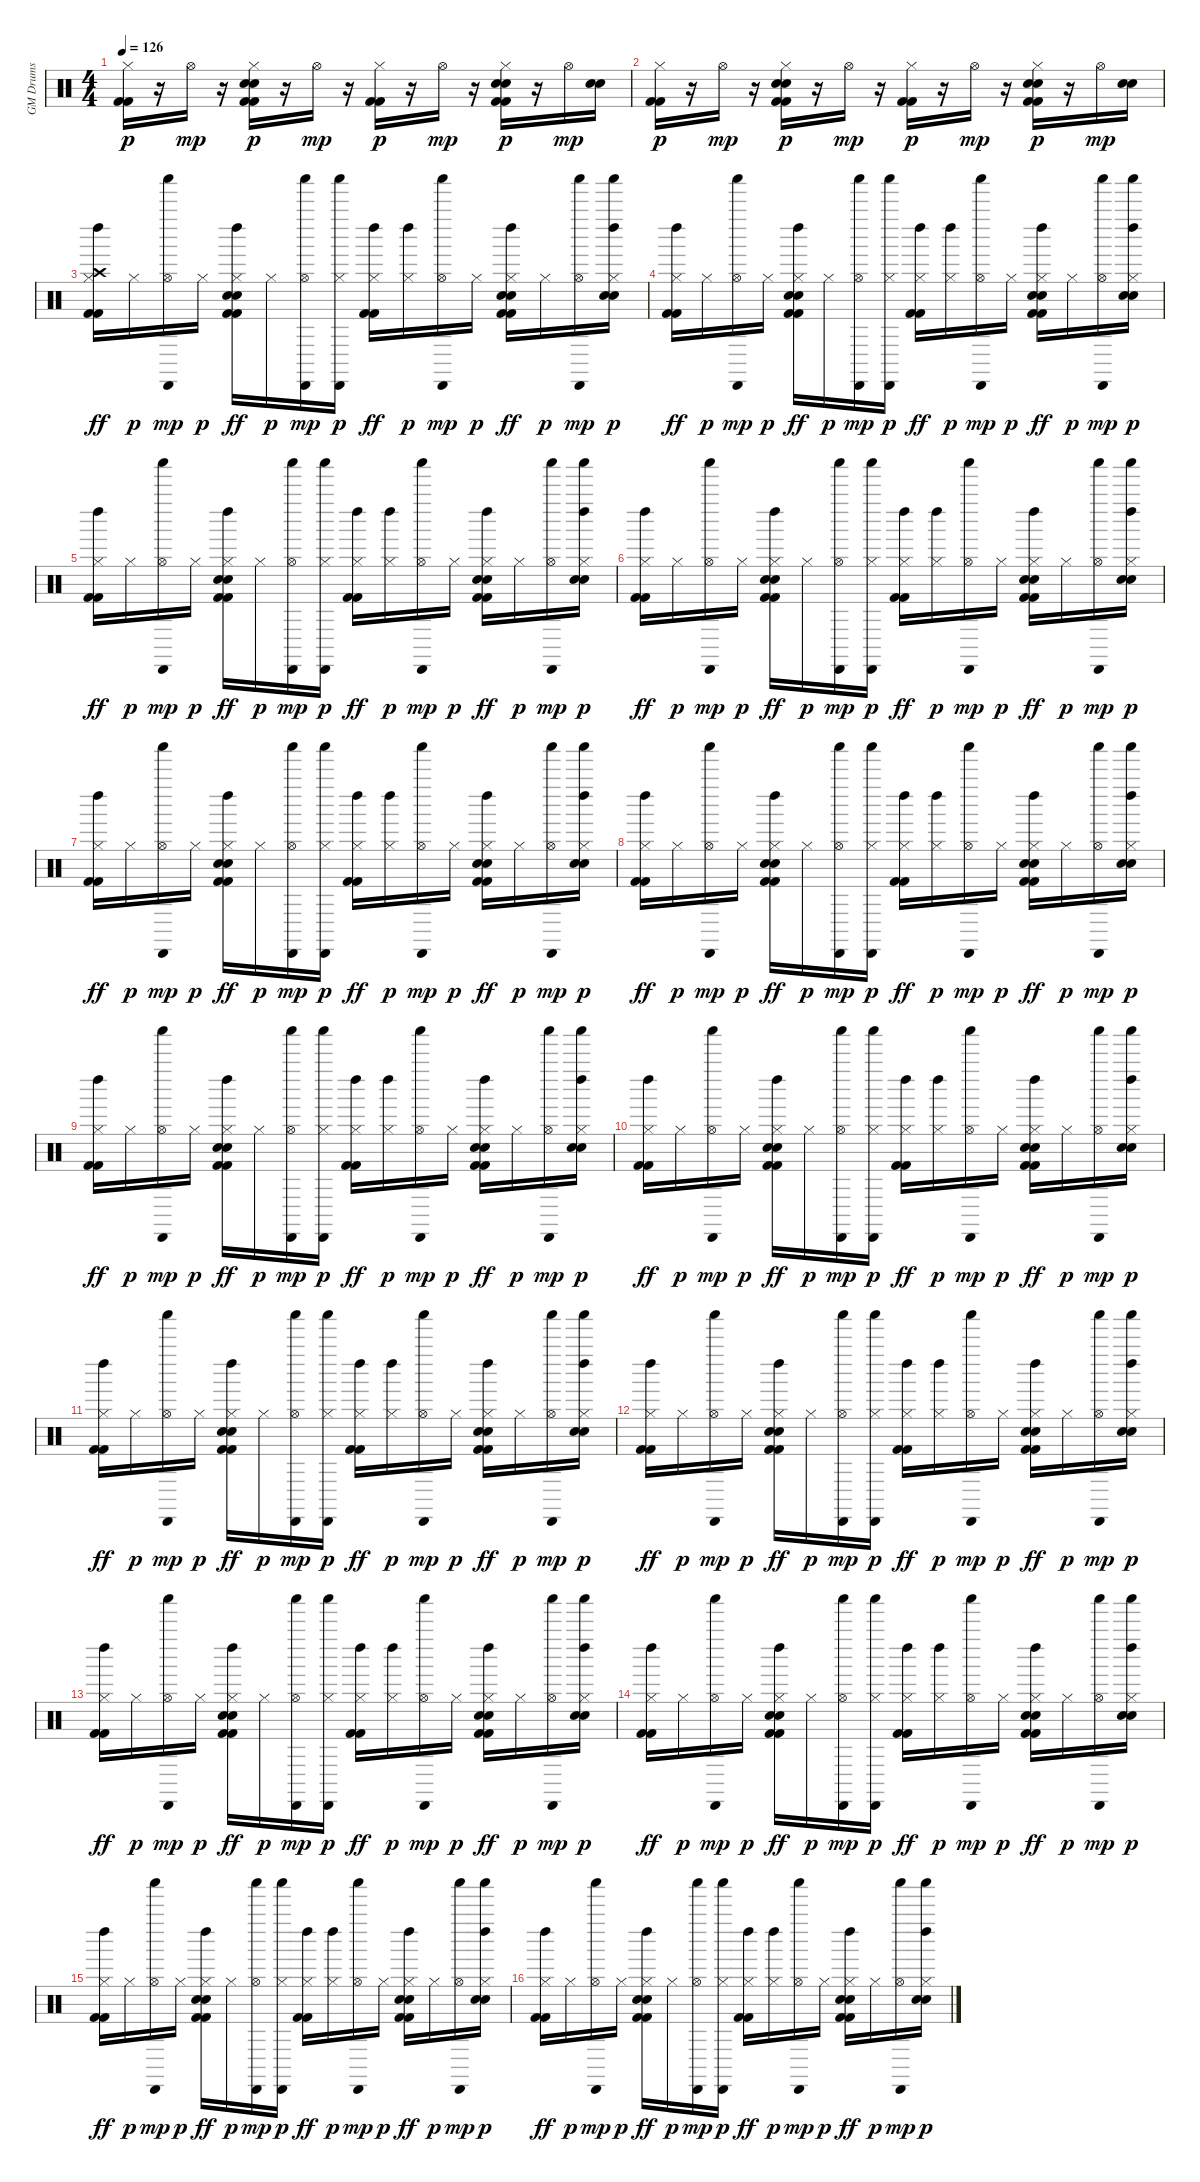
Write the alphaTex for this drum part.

\track ("GM Drums" "GM Drums") {instrument percussion}
\staff {score}
\articulation defaults
\ts (4 4)
\tempo 126
\clef neutral
\ks c
("Kick (hit) 2" "Kick (hit) 2" "Hi-Hat (closed)").16{dy p} r.16 "Hi-Hat (open)".16{dy mp} r.16 ("Kick (hit) 2" "Kick (hit) 2" "Hand Clap (hit)" "Electric Snare (hit)" "Hi-Hat (closed)").16{dy p} r.16 "Hi-Hat (open)".16{dy mp} r.16 ("Kick (hit) 2" "Kick (hit) 2" "Hi-Hat (closed)").16{dy p} r.16 "Hi-Hat (open)".16{dy mp} r.16 ("Kick (hit) 2" "Kick (hit) 2" "Hand Clap (hit)" "Electric Snare (hit)" "Hi-Hat (closed)").16{dy p} r.16 "Hi-Hat (open)".16{dy mp} ("Hand Clap (hit)" "Electric Snare (hit)").16 |
("Kick (hit) 2" "Kick (hit) 2" "Hi-Hat (closed)").16{dy p} r.16 "Hi-Hat (open)".16{dy mp} r.16 ("Kick (hit) 2" "Kick (hit) 2" "Hand Clap (hit)" "Electric Snare (hit)" "Hi-Hat (closed)").16{dy p} r.16 "Hi-Hat (open)".16{dy mp} r.16 ("Kick (hit) 2" "Kick (hit) 2" "Hi-Hat (closed)").16{dy p} r.16 "Hi-Hat (open)".16{dy mp} r.16 ("Kick (hit) 2" "Kick (hit) 2" "Hand Clap (hit)" "Electric Snare (hit)" "Hi-Hat (closed)").16{dy p} r.16 "Hi-Hat (open)".16{dy mp} ("Hand Clap (hit)" "Electric Snare (hit)").16 |
("Kick (hit) 2" "Kick (hit) 2" "Hi-Hat (closed)" "Crash high (hit)" "Left Maraca (hit)").16{dy ff} "Hi-Hat (closed)".16{dy p} ("Hi-Hat (open)" "Cabasa (hit)" "Shaker (hit)").16{dy mp} "Hi-Hat (closed)".16{dy p} ("Kick (hit) 2" "Kick (hit) 2" "Hand Clap (hit)" "Electric Snare (hit)" "Hi-Hat (closed)" "Left Maraca (hit)").16{dy ff} "Hi-Hat (closed)".16{dy p} ("Hi-Hat (open)" "Cabasa (hit)" "Shaker (hit)").16{dy mp} ("Hi-Hat (closed)" "Cabasa (hit)" "Shaker (hit)").16{dy p} ("Kick (hit) 2" "Kick (hit) 2" "Hi-Hat (closed)" "Left Maraca (hit)").16{dy ff} ("Hi-Hat (closed)" "Left Maraca (hit)").16{dy p} ("Hi-Hat (open)" "Cabasa (hit)" "Shaker (hit)").16{dy mp} "Hi-Hat (closed)".16{dy p} ("Kick (hit) 2" "Kick (hit) 2" "Hand Clap (hit)" "Electric Snare (hit)" "Hi-Hat (closed)" "Left Maraca (hit)").16{dy ff} "Hi-Hat (closed)".16{dy p} ("Hi-Hat (open)" "Cabasa (hit)" "Shaker (hit)").16{dy mp} ("Hand Clap (hit)" "Electric Snare (hit)" "Hi-Hat (closed)" "Left Maraca (hit)" "Shaker (hit)").16{dy p} |
("Kick (hit) 2" "Kick (hit) 2" "Hi-Hat (closed)" "Left Maraca (hit)").16{dy ff} "Hi-Hat (closed)".16{dy p} ("Hi-Hat (open)" "Cabasa (hit)" "Shaker (hit)").16{dy mp} "Hi-Hat (closed)".16{dy p} ("Kick (hit) 2" "Kick (hit) 2" "Hand Clap (hit)" "Electric Snare (hit)" "Hi-Hat (closed)" "Left Maraca (hit)").16{dy ff} "Hi-Hat (closed)".16{dy p} ("Hi-Hat (open)" "Cabasa (hit)" "Shaker (hit)").16{dy mp} ("Hi-Hat (closed)" "Cabasa (hit)" "Shaker (hit)").16{dy p} ("Kick (hit) 2" "Kick (hit) 2" "Hi-Hat (closed)" "Left Maraca (hit)").16{dy ff} ("Hi-Hat (closed)" "Left Maraca (hit)").16{dy p} ("Hi-Hat (open)" "Cabasa (hit)" "Shaker (hit)").16{dy mp} "Hi-Hat (closed)".16{dy p} ("Kick (hit) 2" "Kick (hit) 2" "Hand Clap (hit)" "Electric Snare (hit)" "Hi-Hat (closed)" "Left Maraca (hit)").16{dy ff} "Hi-Hat (closed)".16{dy p} ("Hi-Hat (open)" "Cabasa (hit)" "Shaker (hit)").16{dy mp} ("Hand Clap (hit)" "Electric Snare (hit)" "Hi-Hat (closed)" "Left Maraca (hit)" "Shaker (hit)").16{dy p} |
("Kick (hit) 2" "Kick (hit) 2" "Hi-Hat (closed)" "Left Maraca (hit)").16{dy ff} "Hi-Hat (closed)".16{dy p} ("Hi-Hat (open)" "Cabasa (hit)" "Shaker (hit)").16{dy mp} "Hi-Hat (closed)".16{dy p} ("Kick (hit) 2" "Kick (hit) 2" "Hand Clap (hit)" "Electric Snare (hit)" "Hi-Hat (closed)" "Left Maraca (hit)").16{dy ff} "Hi-Hat (closed)".16{dy p} ("Hi-Hat (open)" "Cabasa (hit)" "Shaker (hit)").16{dy mp} ("Hi-Hat (closed)" "Cabasa (hit)" "Shaker (hit)").16{dy p} ("Kick (hit) 2" "Kick (hit) 2" "Hi-Hat (closed)" "Left Maraca (hit)").16{dy ff} ("Hi-Hat (closed)" "Left Maraca (hit)").16{dy p} ("Hi-Hat (open)" "Cabasa (hit)" "Shaker (hit)").16{dy mp} "Hi-Hat (closed)".16{dy p} ("Kick (hit) 2" "Kick (hit) 2" "Hand Clap (hit)" "Electric Snare (hit)" "Hi-Hat (closed)" "Left Maraca (hit)").16{dy ff} "Hi-Hat (closed)".16{dy p} ("Hi-Hat (open)" "Cabasa (hit)" "Shaker (hit)").16{dy mp} ("Hand Clap (hit)" "Electric Snare (hit)" "Hi-Hat (closed)" "Left Maraca (hit)" "Shaker (hit)").16{dy p} |
("Kick (hit) 2" "Kick (hit) 2" "Hi-Hat (closed)" "Left Maraca (hit)").16{dy ff} "Hi-Hat (closed)".16{dy p} ("Hi-Hat (open)" "Cabasa (hit)" "Shaker (hit)").16{dy mp} "Hi-Hat (closed)".16{dy p} ("Kick (hit) 2" "Kick (hit) 2" "Hand Clap (hit)" "Electric Snare (hit)" "Hi-Hat (closed)" "Left Maraca (hit)").16{dy ff} "Hi-Hat (closed)".16{dy p} ("Hi-Hat (open)" "Cabasa (hit)" "Shaker (hit)").16{dy mp} ("Hi-Hat (closed)" "Cabasa (hit)" "Shaker (hit)").16{dy p} ("Kick (hit) 2" "Kick (hit) 2" "Hi-Hat (closed)" "Left Maraca (hit)").16{dy ff} ("Hi-Hat (closed)" "Left Maraca (hit)").16{dy p} ("Hi-Hat (open)" "Cabasa (hit)" "Shaker (hit)").16{dy mp} "Hi-Hat (closed)".16{dy p} ("Kick (hit) 2" "Kick (hit) 2" "Hand Clap (hit)" "Electric Snare (hit)" "Hi-Hat (closed)" "Left Maraca (hit)").16{dy ff} "Hi-Hat (closed)".16{dy p} ("Hi-Hat (open)" "Cabasa (hit)" "Shaker (hit)").16{dy mp} ("Hand Clap (hit)" "Electric Snare (hit)" "Hi-Hat (closed)" "Left Maraca (hit)" "Shaker (hit)").16{dy p} |
("Kick (hit) 2" "Kick (hit) 2" "Hi-Hat (closed)" "Left Maraca (hit)").16{dy ff} "Hi-Hat (closed)".16{dy p} ("Hi-Hat (open)" "Cabasa (hit)" "Shaker (hit)").16{dy mp} "Hi-Hat (closed)".16{dy p} ("Kick (hit) 2" "Kick (hit) 2" "Hand Clap (hit)" "Electric Snare (hit)" "Hi-Hat (closed)" "Left Maraca (hit)").16{dy ff} "Hi-Hat (closed)".16{dy p} ("Hi-Hat (open)" "Cabasa (hit)" "Shaker (hit)").16{dy mp} ("Hi-Hat (closed)" "Cabasa (hit)" "Shaker (hit)").16{dy p} ("Kick (hit) 2" "Kick (hit) 2" "Hi-Hat (closed)" "Left Maraca (hit)").16{dy ff} ("Hi-Hat (closed)" "Left Maraca (hit)").16{dy p} ("Hi-Hat (open)" "Cabasa (hit)" "Shaker (hit)").16{dy mp} "Hi-Hat (closed)".16{dy p} ("Kick (hit) 2" "Kick (hit) 2" "Hand Clap (hit)" "Electric Snare (hit)" "Hi-Hat (closed)" "Left Maraca (hit)").16{dy ff} "Hi-Hat (closed)".16{dy p} ("Hi-Hat (open)" "Cabasa (hit)" "Shaker (hit)").16{dy mp} ("Hand Clap (hit)" "Electric Snare (hit)" "Hi-Hat (closed)" "Left Maraca (hit)" "Shaker (hit)").16{dy p} |
("Kick (hit) 2" "Kick (hit) 2" "Hi-Hat (closed)" "Left Maraca (hit)").16{dy ff} "Hi-Hat (closed)".16{dy p} ("Hi-Hat (open)" "Cabasa (hit)" "Shaker (hit)").16{dy mp} "Hi-Hat (closed)".16{dy p} ("Kick (hit) 2" "Kick (hit) 2" "Hand Clap (hit)" "Electric Snare (hit)" "Hi-Hat (closed)" "Left Maraca (hit)").16{dy ff} "Hi-Hat (closed)".16{dy p} ("Hi-Hat (open)" "Cabasa (hit)" "Shaker (hit)").16{dy mp} ("Hi-Hat (closed)" "Cabasa (hit)" "Shaker (hit)").16{dy p} ("Kick (hit) 2" "Kick (hit) 2" "Hi-Hat (closed)" "Left Maraca (hit)").16{dy ff} ("Hi-Hat (closed)" "Left Maraca (hit)").16{dy p} ("Hi-Hat (open)" "Cabasa (hit)" "Shaker (hit)").16{dy mp} "Hi-Hat (closed)".16{dy p} ("Kick (hit) 2" "Kick (hit) 2" "Hand Clap (hit)" "Electric Snare (hit)" "Hi-Hat (closed)" "Left Maraca (hit)").16{dy ff} "Hi-Hat (closed)".16{dy p} ("Hi-Hat (open)" "Cabasa (hit)" "Shaker (hit)").16{dy mp} ("Hand Clap (hit)" "Electric Snare (hit)" "Hi-Hat (closed)" "Left Maraca (hit)" "Shaker (hit)").16{dy p} |
("Kick (hit) 2" "Kick (hit) 2" "Hi-Hat (closed)" "Left Maraca (hit)").16{dy ff} "Hi-Hat (closed)".16{dy p} ("Hi-Hat (open)" "Cabasa (hit)" "Shaker (hit)").16{dy mp} "Hi-Hat (closed)".16{dy p} ("Kick (hit) 2" "Kick (hit) 2" "Hand Clap (hit)" "Electric Snare (hit)" "Hi-Hat (closed)" "Left Maraca (hit)").16{dy ff} "Hi-Hat (closed)".16{dy p} ("Hi-Hat (open)" "Cabasa (hit)" "Shaker (hit)").16{dy mp} ("Hi-Hat (closed)" "Cabasa (hit)" "Shaker (hit)").16{dy p} ("Kick (hit) 2" "Kick (hit) 2" "Hi-Hat (closed)" "Left Maraca (hit)").16{dy ff} ("Hi-Hat (closed)" "Left Maraca (hit)").16{dy p} ("Hi-Hat (open)" "Cabasa (hit)" "Shaker (hit)").16{dy mp} "Hi-Hat (closed)".16{dy p} ("Kick (hit) 2" "Kick (hit) 2" "Hand Clap (hit)" "Electric Snare (hit)" "Hi-Hat (closed)" "Left Maraca (hit)").16{dy ff} "Hi-Hat (closed)".16{dy p} ("Hi-Hat (open)" "Cabasa (hit)" "Shaker (hit)").16{dy mp} ("Hand Clap (hit)" "Electric Snare (hit)" "Hi-Hat (closed)" "Left Maraca (hit)" "Shaker (hit)").16{dy p} |
("Kick (hit) 2" "Kick (hit) 2" "Hi-Hat (closed)" "Left Maraca (hit)").16{dy ff} "Hi-Hat (closed)".16{dy p} ("Hi-Hat (open)" "Cabasa (hit)" "Shaker (hit)").16{dy mp} "Hi-Hat (closed)".16{dy p} ("Kick (hit) 2" "Kick (hit) 2" "Hand Clap (hit)" "Electric Snare (hit)" "Hi-Hat (closed)" "Left Maraca (hit)").16{dy ff} "Hi-Hat (closed)".16{dy p} ("Hi-Hat (open)" "Cabasa (hit)" "Shaker (hit)").16{dy mp} ("Hi-Hat (closed)" "Cabasa (hit)" "Shaker (hit)").16{dy p} ("Kick (hit) 2" "Kick (hit) 2" "Hi-Hat (closed)" "Left Maraca (hit)").16{dy ff} ("Hi-Hat (closed)" "Left Maraca (hit)").16{dy p} ("Hi-Hat (open)" "Cabasa (hit)" "Shaker (hit)").16{dy mp} "Hi-Hat (closed)".16{dy p} ("Kick (hit) 2" "Kick (hit) 2" "Hand Clap (hit)" "Electric Snare (hit)" "Hi-Hat (closed)" "Left Maraca (hit)").16{dy ff} "Hi-Hat (closed)".16{dy p} ("Hi-Hat (open)" "Cabasa (hit)" "Shaker (hit)").16{dy mp} ("Hand Clap (hit)" "Electric Snare (hit)" "Hi-Hat (closed)" "Left Maraca (hit)" "Shaker (hit)").16{dy p} |
("Kick (hit) 2" "Kick (hit) 2" "Hi-Hat (closed)" "Left Maraca (hit)").16{dy ff} "Hi-Hat (closed)".16{dy p} ("Hi-Hat (open)" "Cabasa (hit)" "Shaker (hit)").16{dy mp} "Hi-Hat (closed)".16{dy p} ("Kick (hit) 2" "Kick (hit) 2" "Hand Clap (hit)" "Electric Snare (hit)" "Hi-Hat (closed)" "Left Maraca (hit)").16{dy ff} "Hi-Hat (closed)".16{dy p} ("Hi-Hat (open)" "Cabasa (hit)" "Shaker (hit)").16{dy mp} ("Hi-Hat (closed)" "Cabasa (hit)" "Shaker (hit)").16{dy p} ("Kick (hit) 2" "Kick (hit) 2" "Hi-Hat (closed)" "Left Maraca (hit)").16{dy ff} ("Hi-Hat (closed)" "Left Maraca (hit)").16{dy p} ("Hi-Hat (open)" "Cabasa (hit)" "Shaker (hit)").16{dy mp} "Hi-Hat (closed)".16{dy p} ("Kick (hit) 2" "Kick (hit) 2" "Hand Clap (hit)" "Electric Snare (hit)" "Hi-Hat (closed)" "Left Maraca (hit)").16{dy ff} "Hi-Hat (closed)".16{dy p} ("Hi-Hat (open)" "Cabasa (hit)" "Shaker (hit)").16{dy mp} ("Hand Clap (hit)" "Electric Snare (hit)" "Hi-Hat (closed)" "Left Maraca (hit)" "Shaker (hit)").16{dy p} |
("Kick (hit) 2" "Kick (hit) 2" "Hi-Hat (closed)" "Left Maraca (hit)").16{dy ff} "Hi-Hat (closed)".16{dy p} ("Hi-Hat (open)" "Cabasa (hit)" "Shaker (hit)").16{dy mp} "Hi-Hat (closed)".16{dy p} ("Kick (hit) 2" "Kick (hit) 2" "Hand Clap (hit)" "Electric Snare (hit)" "Hi-Hat (closed)" "Left Maraca (hit)").16{dy ff} "Hi-Hat (closed)".16{dy p} ("Hi-Hat (open)" "Cabasa (hit)" "Shaker (hit)").16{dy mp} ("Hi-Hat (closed)" "Cabasa (hit)" "Shaker (hit)").16{dy p} ("Kick (hit) 2" "Kick (hit) 2" "Hi-Hat (closed)" "Left Maraca (hit)").16{dy ff} ("Hi-Hat (closed)" "Left Maraca (hit)").16{dy p} ("Hi-Hat (open)" "Cabasa (hit)" "Shaker (hit)").16{dy mp} "Hi-Hat (closed)".16{dy p} ("Kick (hit) 2" "Kick (hit) 2" "Hand Clap (hit)" "Electric Snare (hit)" "Hi-Hat (closed)" "Left Maraca (hit)").16{dy ff} "Hi-Hat (closed)".16{dy p} ("Hi-Hat (open)" "Cabasa (hit)" "Shaker (hit)").16{dy mp} ("Hand Clap (hit)" "Electric Snare (hit)" "Hi-Hat (closed)" "Left Maraca (hit)" "Shaker (hit)").16{dy p} |
("Kick (hit) 2" "Kick (hit) 2" "Hi-Hat (closed)" "Left Maraca (hit)").16{dy ff} "Hi-Hat (closed)".16{dy p} ("Hi-Hat (open)" "Cabasa (hit)" "Shaker (hit)").16{dy mp} "Hi-Hat (closed)".16{dy p} ("Kick (hit) 2" "Kick (hit) 2" "Hand Clap (hit)" "Electric Snare (hit)" "Hi-Hat (closed)" "Left Maraca (hit)").16{dy ff} "Hi-Hat (closed)".16{dy p} ("Hi-Hat (open)" "Cabasa (hit)" "Shaker (hit)").16{dy mp} ("Hi-Hat (closed)" "Cabasa (hit)" "Shaker (hit)").16{dy p} ("Kick (hit) 2" "Kick (hit) 2" "Hi-Hat (closed)" "Left Maraca (hit)").16{dy ff} ("Hi-Hat (closed)" "Left Maraca (hit)").16{dy p} ("Hi-Hat (open)" "Cabasa (hit)" "Shaker (hit)").16{dy mp} "Hi-Hat (closed)".16{dy p} ("Kick (hit) 2" "Kick (hit) 2" "Hand Clap (hit)" "Electric Snare (hit)" "Hi-Hat (closed)" "Left Maraca (hit)").16{dy ff} "Hi-Hat (closed)".16{dy p} ("Hi-Hat (open)" "Cabasa (hit)" "Shaker (hit)").16{dy mp} ("Hand Clap (hit)" "Electric Snare (hit)" "Hi-Hat (closed)" "Left Maraca (hit)" "Shaker (hit)").16{dy p} |
("Kick (hit) 2" "Kick (hit) 2" "Hi-Hat (closed)" "Left Maraca (hit)").16{dy ff} "Hi-Hat (closed)".16{dy p} ("Hi-Hat (open)" "Cabasa (hit)" "Shaker (hit)").16{dy mp} "Hi-Hat (closed)".16{dy p} ("Kick (hit) 2" "Kick (hit) 2" "Hand Clap (hit)" "Electric Snare (hit)" "Hi-Hat (closed)" "Left Maraca (hit)").16{dy ff} "Hi-Hat (closed)".16{dy p} ("Hi-Hat (open)" "Cabasa (hit)" "Shaker (hit)").16{dy mp} ("Hi-Hat (closed)" "Cabasa (hit)" "Shaker (hit)").16{dy p} ("Kick (hit) 2" "Kick (hit) 2" "Hi-Hat (closed)" "Left Maraca (hit)").16{dy ff} ("Hi-Hat (closed)" "Left Maraca (hit)").16{dy p} ("Hi-Hat (open)" "Cabasa (hit)" "Shaker (hit)").16{dy mp} "Hi-Hat (closed)".16{dy p} ("Kick (hit) 2" "Kick (hit) 2" "Hand Clap (hit)" "Electric Snare (hit)" "Hi-Hat (closed)" "Left Maraca (hit)").16{dy ff} "Hi-Hat (closed)".16{dy p} ("Hi-Hat (open)" "Cabasa (hit)" "Shaker (hit)").16{dy mp} ("Hand Clap (hit)" "Electric Snare (hit)" "Hi-Hat (closed)" "Left Maraca (hit)" "Shaker (hit)").16{dy p} |
("Kick (hit) 2" "Kick (hit) 2" "Hi-Hat (closed)" "Left Maraca (hit)").16{dy ff} "Hi-Hat (closed)".16{dy p} ("Hi-Hat (open)" "Cabasa (hit)" "Shaker (hit)").16{dy mp} "Hi-Hat (closed)".16{dy p} ("Kick (hit) 2" "Kick (hit) 2" "Hand Clap (hit)" "Electric Snare (hit)" "Hi-Hat (closed)" "Left Maraca (hit)").16{dy ff} "Hi-Hat (closed)".16{dy p} ("Hi-Hat (open)" "Cabasa (hit)" "Shaker (hit)").16{dy mp} ("Hi-Hat (closed)" "Cabasa (hit)" "Shaker (hit)").16{dy p} ("Kick (hit) 2" "Kick (hit) 2" "Hi-Hat (closed)" "Left Maraca (hit)").16{dy ff} ("Hi-Hat (closed)" "Left Maraca (hit)").16{dy p} ("Hi-Hat (open)" "Cabasa (hit)" "Shaker (hit)").16{dy mp} "Hi-Hat (closed)".16{dy p} ("Kick (hit) 2" "Kick (hit) 2" "Hand Clap (hit)" "Electric Snare (hit)" "Hi-Hat (closed)" "Left Maraca (hit)").16{dy ff} "Hi-Hat (closed)".16{dy p} ("Hi-Hat (open)" "Cabasa (hit)" "Shaker (hit)").16{dy mp} ("Hand Clap (hit)" "Electric Snare (hit)" "Hi-Hat (closed)" "Left Maraca (hit)" "Shaker (hit)").16{dy p} |
("Kick (hit) 2" "Kick (hit) 2" "Hi-Hat (closed)" "Left Maraca (hit)").16{dy ff} "Hi-Hat (closed)".16{dy p} ("Hi-Hat (open)" "Cabasa (hit)" "Shaker (hit)").16{dy mp} "Hi-Hat (closed)".16{dy p} ("Kick (hit) 2" "Kick (hit) 2" "Hand Clap (hit)" "Electric Snare (hit)" "Hi-Hat (closed)" "Left Maraca (hit)").16{dy ff} "Hi-Hat (closed)".16{dy p} ("Hi-Hat (open)" "Cabasa (hit)" "Shaker (hit)").16{dy mp} ("Hi-Hat (closed)" "Cabasa (hit)" "Shaker (hit)").16{dy p} ("Kick (hit) 2" "Kick (hit) 2" "Hi-Hat (closed)" "Left Maraca (hit)").16{dy ff} ("Hi-Hat (closed)" "Left Maraca (hit)").16{dy p} ("Hi-Hat (open)" "Cabasa (hit)" "Shaker (hit)").16{dy mp} "Hi-Hat (closed)".16{dy p} ("Kick (hit) 2" "Kick (hit) 2" "Hand Clap (hit)" "Electric Snare (hit)" "Hi-Hat (closed)" "Left Maraca (hit)").16{dy ff} "Hi-Hat (closed)".16{dy p} ("Hi-Hat (open)" "Cabasa (hit)" "Shaker (hit)").16{dy mp} ("Hand Clap (hit)" "Electric Snare (hit)" "Hi-Hat (closed)" "Left Maraca (hit)" "Shaker (hit)").16{dy p}
